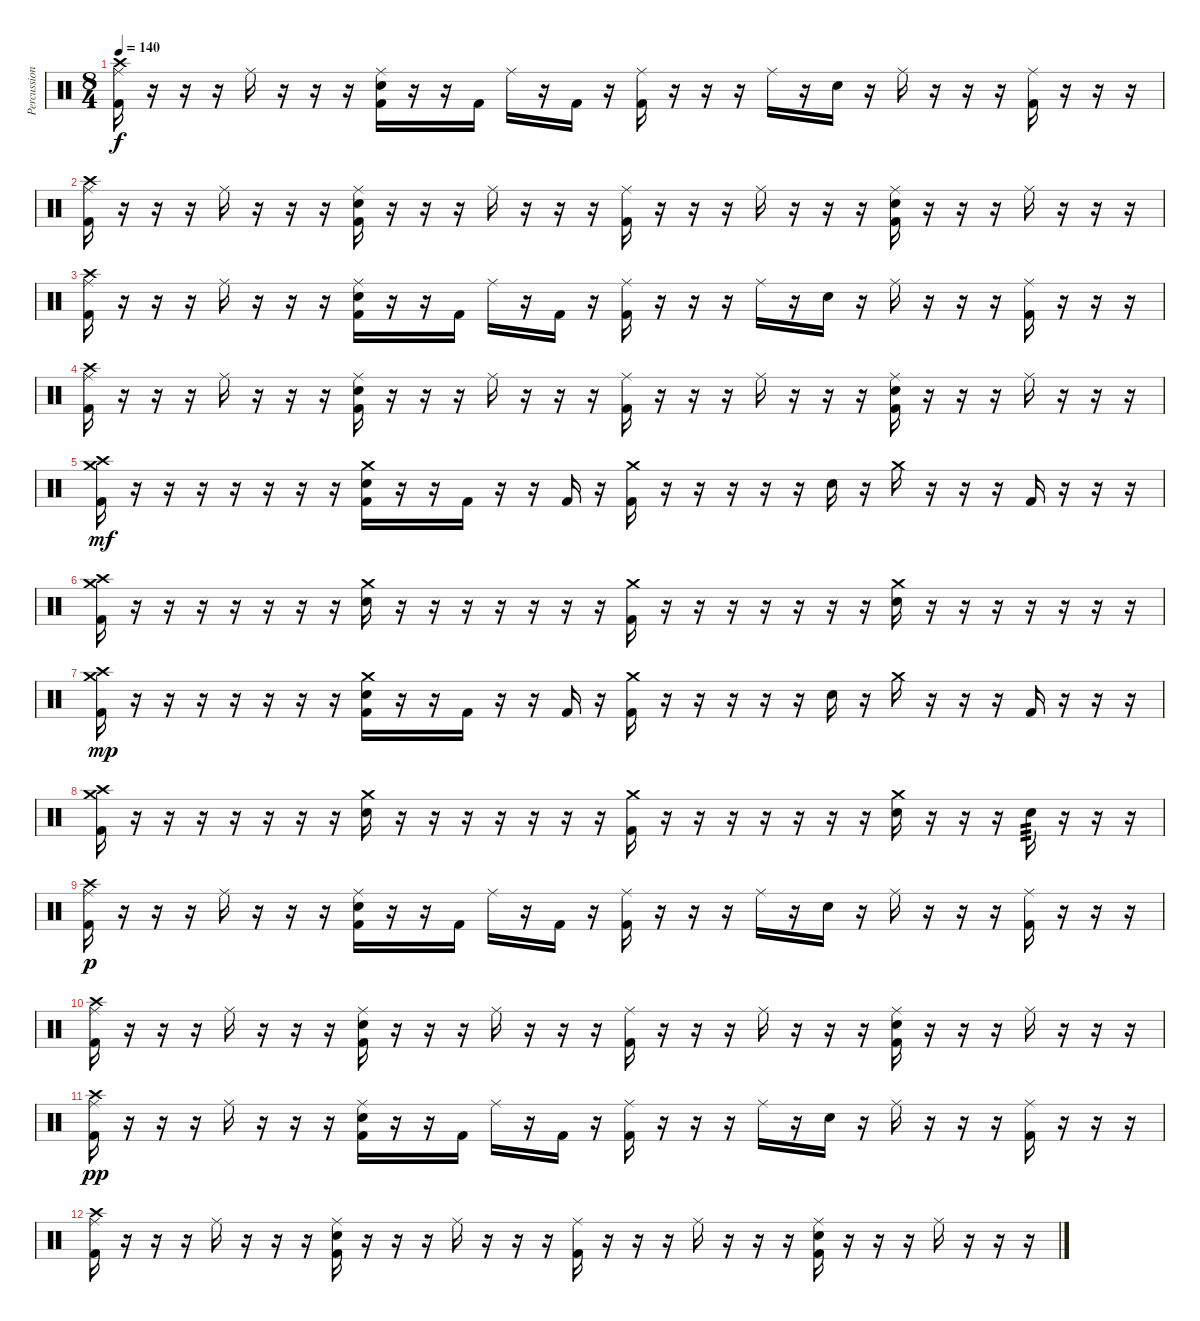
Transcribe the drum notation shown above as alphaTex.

\track ("Percussion" "Percussion") {solo instrument percussion}
\staff {score}
\articulation defaults
\ts (8 4)
\tempo 140
\clef neutral
\ks c
("Ride (middle)" "Crash high (hit)" "Kick (hit) 2").16{dy f} r.16 r.16 r.16 "Ride (middle)".16 r.16 r.16 r.16 ("Ride (middle)" "Electric Snare (hit)" "Kick (hit) 2").16 r.16 r.16 "Kick (hit) 2".16 "Ride (middle)".16 r.16 "Kick (hit) 2".16 r.16 ("Ride (middle)" "Kick (hit) 2").16 r.16 r.16 r.16 "Ride (middle)".16 r.16 "Electric Snare (hit)".16 r.16 "Ride (middle)".16 r.16 r.16 r.16 ("Ride (middle)" "Kick (hit) 2").16 r.16 r.16 r.16 |
("Ride (middle)" "Crash high (hit)" "Kick (hit) 2").16 r.16 r.16 r.16 "Ride (middle)".16 r.16 r.16 r.16 ("Ride (middle)" "Electric Snare (hit)" "Kick (hit) 2").16 r.16 r.16 r.16 "Ride (middle)".16 r.16 r.16 r.16 ("Ride (middle)" "Kick (hit) 2").16 r.16 r.16 r.16 "Ride (middle)".16 r.16 r.16 r.16 ("Ride (middle)" "Electric Snare (hit)" "Kick (hit) 2").16 r.16 r.16 r.16 "Ride (middle)".16 r.16 r.16 r.16 |
("Ride (middle)" "Crash high (hit)" "Kick (hit) 2").16 r.16 r.16 r.16 "Ride (middle)".16 r.16 r.16 r.16 ("Ride (middle)" "Electric Snare (hit)" "Kick (hit) 2").16 r.16 r.16 "Kick (hit) 2".16 "Ride (middle)".16 r.16 "Kick (hit) 2".16 r.16 ("Ride (middle)" "Kick (hit) 2").16 r.16 r.16 r.16 "Ride (middle)".16 r.16 "Electric Snare (hit)".16 r.16 "Ride (middle)".16 r.16 r.16 r.16 ("Ride (middle)" "Kick (hit) 2").16 r.16 r.16 r.16 |
("Ride (middle)" "Crash high (hit)" "Kick (hit) 2").16 r.16 r.16 r.16 "Ride (middle)".16 r.16 r.16 r.16 ("Ride (middle)" "Electric Snare (hit)" "Kick (hit) 2").16 r.16 r.16 r.16 "Ride (middle)".16 r.16 r.16 r.16 ("Ride (middle)" "Kick (hit) 2").16 r.16 r.16 r.16 "Ride (middle)".16 r.16 r.16 r.16 ("Ride (middle)" "Electric Snare (hit)" "Kick (hit) 2").16 r.16 r.16 r.16 "Ride (middle)".16 r.16 r.16 r.16 |
("Crash medium (hit)" "Crash high (hit)" "Kick (hit) 2").16{dy mf} r.16 r.16 r.16 r.16 r.16 r.16 r.16 ("Crash medium (hit)" "Electric Snare (hit)" "Kick (hit) 2").16 r.16 r.16 "Kick (hit) 2".16 r.16 r.16 "Kick (hit) 2".16 r.16 ("Crash medium (hit)" "Kick (hit) 2").16 r.16 r.16 r.16 r.16 r.16 "Electric Snare (hit)".16 r.16 "Crash medium (hit)".16 r.16 r.16 r.16 "Kick (hit) 2".16 r.16 r.16 r.16 |
("Crash medium (hit)" "Crash high (hit)" "Kick (hit) 2").16 r.16 r.16 r.16 r.16 r.16 r.16 r.16 ("Crash medium (hit)" "Electric Snare (hit)").16 r.16 r.16 r.16 r.16 r.16 r.16 r.16 ("Crash medium (hit)" "Kick (hit) 2").16 r.16 r.16 r.16 r.16 r.16 r.16 r.16 ("Crash medium (hit)" "Electric Snare (hit)").16 r.16 r.16 r.16 r.16 r.16 r.16 r.16 |
("Crash medium (hit)" "Crash high (hit)" "Kick (hit) 2").16{dy mp} r.16 r.16 r.16 r.16 r.16 r.16 r.16 ("Crash medium (hit)" "Electric Snare (hit)" "Kick (hit) 2").16 r.16 r.16 "Kick (hit) 2".16 r.16 r.16 "Kick (hit) 2".16 r.16 ("Crash medium (hit)" "Kick (hit) 2").16 r.16 r.16 r.16 r.16 r.16 "Electric Snare (hit)".16 r.16 "Crash medium (hit)".16 r.16 r.16 r.16 "Kick (hit) 2".16 r.16 r.16 r.16 |
("Crash medium (hit)" "Crash high (hit)" "Kick (hit) 2").16 r.16 r.16 r.16 r.16 r.16 r.16 r.16 ("Crash medium (hit)" "Electric Snare (hit)").16 r.16 r.16 r.16 r.16 r.16 r.16 r.16 ("Crash medium (hit)" "Kick (hit) 2").16 r.16 r.16 r.16 r.16 r.16 r.16 r.16 ("Crash medium (hit)" "Electric Snare (hit)").16 r.16 r.16 r.16 "Electric Snare (hit)".16{tp 3} r.16 r.16 r.16 |
("Ride (middle)" "Crash high (hit)" "Kick (hit) 2").16{dy p} r.16 r.16 r.16 "Ride (middle)".16 r.16 r.16 r.16 ("Ride (middle)" "Electric Snare (hit)" "Kick (hit) 2").16 r.16 r.16 "Kick (hit) 2".16 "Ride (middle)".16 r.16 "Kick (hit) 2".16 r.16 ("Ride (middle)" "Kick (hit) 2").16 r.16 r.16 r.16 "Ride (middle)".16 r.16 "Electric Snare (hit)".16 r.16 "Ride (middle)".16 r.16 r.16 r.16 ("Ride (middle)" "Kick (hit) 2").16 r.16 r.16 r.16 |
("Ride (middle)" "Crash high (hit)" "Kick (hit) 2").16 r.16 r.16 r.16 "Ride (middle)".16 r.16 r.16 r.16 ("Ride (middle)" "Electric Snare (hit)" "Kick (hit) 2").16 r.16 r.16 r.16 "Ride (middle)".16 r.16 r.16 r.16 ("Ride (middle)" "Kick (hit) 2").16 r.16 r.16 r.16 "Ride (middle)".16 r.16 r.16 r.16 ("Ride (middle)" "Electric Snare (hit)" "Kick (hit) 2").16 r.16 r.16 r.16 "Ride (middle)".16 r.16 r.16 r.16 |
("Ride (middle)" "Crash high (hit)" "Kick (hit) 2").16{dy pp} r.16 r.16 r.16 "Ride (middle)".16 r.16 r.16 r.16 ("Ride (middle)" "Electric Snare (hit)" "Kick (hit) 2").16 r.16 r.16 "Kick (hit) 2".16 "Ride (middle)".16 r.16 "Kick (hit) 2".16 r.16 ("Ride (middle)" "Kick (hit) 2").16 r.16 r.16 r.16 "Ride (middle)".16 r.16 "Electric Snare (hit)".16 r.16 "Ride (middle)".16 r.16 r.16 r.16 ("Ride (middle)" "Kick (hit) 2").16 r.16 r.16 r.16 |
("Ride (middle)" "Crash high (hit)" "Kick (hit) 2").16 r.16 r.16 r.16 "Ride (middle)".16 r.16 r.16 r.16 ("Ride (middle)" "Electric Snare (hit)" "Kick (hit) 2").16 r.16 r.16 r.16 "Ride (middle)".16 r.16 r.16 r.16 ("Ride (middle)" "Kick (hit) 2").16 r.16 r.16 r.16 "Ride (middle)".16 r.16 r.16 r.16 ("Ride (middle)" "Electric Snare (hit)" "Kick (hit) 2").16 r.16 r.16 r.16 "Ride (middle)".16 r.16 r.16 r.16
